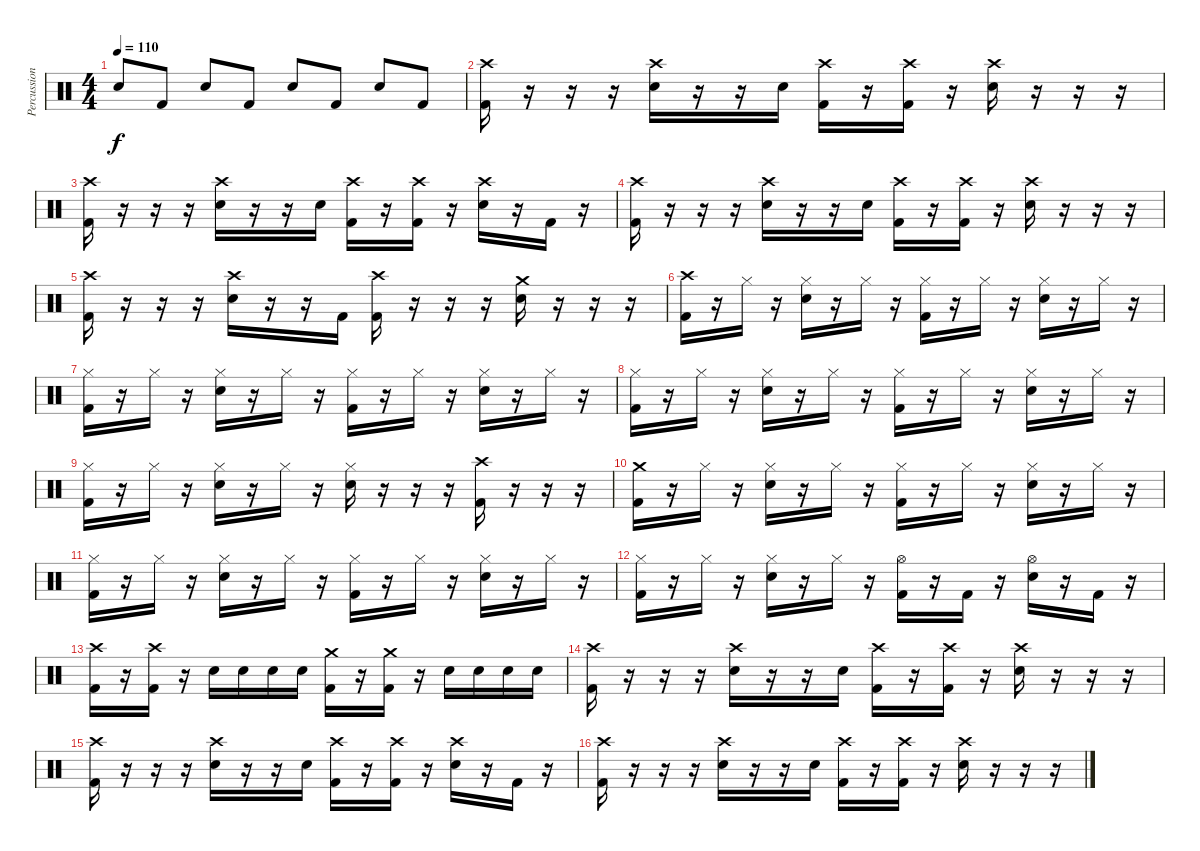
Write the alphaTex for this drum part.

\track ("Percussion" "Percussion") {instrument percussion}
\staff {score}
\articulation defaults
\ts (4 4)
\tempo 110
\clef neutral
\ks c "Snare (hit) 2".8{dy f} "Kick (hit) 2".8 "Snare (hit) 2".8 "Kick (hit) 2".8 "Snare (hit) 2".8 "Kick (hit) 2".8 "Snare (hit) 2".8 "Kick (hit) 2".8
|
("Crash high (hit)" "Kick (hit) 2").16 r.16 r.16 r.16 ("Crash high (hit)" "Snare (hit) 2").16 r.16 r.16 "Snare (hit) 2".16 ("Crash high (hit)" "Kick (hit) 2").16 r.16 ("Crash high (hit)" "Kick (hit) 2").16 r.16 ("Crash high (hit)" "Snare (hit) 2").16 r.16 r.16 r.16 |
("Crash high (hit)" "Kick (hit) 2").16 r.16 r.16 r.16 ("Crash high (hit)" "Snare (hit) 2").16 r.16 r.16 "Snare (hit) 2".16 ("Crash high (hit)" "Kick (hit) 2").16 r.16 ("Crash high (hit)" "Kick (hit) 2").16 r.16 ("Crash high (hit)" "Snare (hit) 2").16 r.16 "Kick (hit) 2".16 r.16 |
("Crash high (hit)" "Kick (hit) 2").16 r.16 r.16 r.16 ("Crash high (hit)" "Snare (hit) 2").16 r.16 r.16 "Snare (hit) 2".16 ("Crash high (hit)" "Kick (hit) 2").16 r.16 ("Crash high (hit)" "Kick (hit) 2").16 r.16 ("Crash high (hit)" "Snare (hit) 2").16 r.16 r.16 r.16 |
("Crash high (hit)" "Kick (hit) 2").16 r.16 r.16 r.16 ("Crash high (hit)" "Snare (hit) 2").16 r.16 r.16 "Kick (hit) 2".16 ("Crash high (hit)" "Kick (hit) 2").16 r.16 r.16 r.16 ("Crash medium (hit)" "Snare (hit) 2").16 r.16 r.16 r.16 |
("Crash high (hit)" "Kick (hit) 2").16 r.16 "Hi-Hat (closed)".16 r.16 ("Hi-Hat (closed)" "Snare (hit) 2").16 r.16 "Hi-Hat (closed)".16 r.16 ("Hi-Hat (closed)" "Kick (hit) 2").16 r.16 "Hi-Hat (closed)".16 r.16 ("Hi-Hat (closed)" "Snare (hit) 2").16 r.16 "Hi-Hat (closed)".16 r.16 |
("Hi-Hat (closed)" "Kick (hit) 2").16 r.16 "Hi-Hat (closed)".16 r.16 ("Hi-Hat (closed)" "Snare (hit) 2").16 r.16 "Hi-Hat (closed)".16 r.16 ("Hi-Hat (closed)" "Kick (hit) 2").16 r.16 "Hi-Hat (closed)".16 r.16 ("Hi-Hat (closed)" "Snare (hit) 2").16 r.16 "Hi-Hat (closed)".16 r.16 |
("Hi-Hat (closed)" "Kick (hit) 2").16 r.16 "Hi-Hat (closed)".16 r.16 ("Hi-Hat (closed)" "Snare (hit) 2").16 r.16 "Hi-Hat (closed)".16 r.16 ("Hi-Hat (closed)" "Kick (hit) 2").16 r.16 "Hi-Hat (closed)".16 r.16 ("Hi-Hat (closed)" "Snare (hit) 2").16 r.16 "Hi-Hat (closed)".16 r.16 |
("Hi-Hat (closed)" "Kick (hit) 2").16 r.16 "Hi-Hat (closed)".16 r.16 ("Hi-Hat (closed)" "Snare (hit) 2").16 r.16 "Hi-Hat (closed)".16 r.16 ("Hi-Hat (closed)" "Snare (hit) 2").16 r.16 r.16 r.16 ("Crash high (hit)" "Kick (hit) 2").16 r.16 r.16 r.16 |
("Crash medium (hit)" "Kick (hit) 2").16 r.16 "Hi-Hat (closed)".16 r.16 ("Hi-Hat (closed)" "Snare (hit) 2").16 r.16 "Hi-Hat (closed)".16 r.16 ("Hi-Hat (closed)" "Kick (hit) 2").16 r.16 "Hi-Hat (closed)".16 r.16 ("Hi-Hat (closed)" "Snare (hit) 2").16 r.16 "Hi-Hat (closed)".16 r.16 |
("Hi-Hat (closed)" "Kick (hit) 2").16 r.16 "Hi-Hat (closed)".16 r.16 ("Hi-Hat (closed)" "Snare (hit) 2").16 r.16 "Hi-Hat (closed)".16 r.16 ("Hi-Hat (closed)" "Kick (hit) 2").16 r.16 "Hi-Hat (closed)".16 r.16 ("Hi-Hat (closed)" "Snare (hit) 2").16 r.16 "Hi-Hat (closed)".16 r.16 |
("Hi-Hat (closed)" "Kick (hit) 2").16 r.16 "Hi-Hat (closed)".16 r.16 ("Hi-Hat (closed)" "Snare (hit) 2").16 r.16 "Hi-Hat (closed)".16 r.16 ("Hi-Hat (open)" "Kick (hit) 2").16 r.16 "Kick (hit) 2".16 r.16 ("Hi-Hat (open)" "Snare (hit) 2").16 r.16 "Kick (hit) 2".16 r.16 |
("Crash high (hit)" "Kick (hit) 2").16 r.16 ("Crash high (hit)" "Kick (hit) 2").16 r.16 "Snare (hit) 2".16 "Snare (hit) 2".16 "Snare (hit) 2".16 "Snare (hit) 2".16 ("Crash medium (hit)" "Kick (hit) 2").16 r.16 ("Crash medium (hit)" "Kick (hit) 2").16 r.16 "Snare (hit) 2".16 "Snare (hit) 2".16 "Snare (hit) 2".16 "Snare (hit) 2".16 |
("Crash high (hit)" "Kick (hit) 2").16 r.16 r.16 r.16 ("Crash high (hit)" "Snare (hit) 2").16 r.16 r.16 "Snare (hit) 2".16 ("Crash high (hit)" "Kick (hit) 2").16 r.16 ("Crash high (hit)" "Kick (hit) 2").16 r.16 ("Crash high (hit)" "Snare (hit) 2").16 r.16 r.16 r.16 |
("Crash high (hit)" "Kick (hit) 2").16 r.16 r.16 r.16 ("Crash high (hit)" "Snare (hit) 2").16 r.16 r.16 "Snare (hit) 2".16 ("Crash high (hit)" "Kick (hit) 2").16 r.16 ("Crash high (hit)" "Kick (hit) 2").16 r.16 ("Crash high (hit)" "Snare (hit) 2").16 r.16 "Kick (hit) 2".16 r.16 |
("Crash high (hit)" "Kick (hit) 2").16 r.16 r.16 r.16 ("Crash high (hit)" "Snare (hit) 2").16 r.16 r.16 "Snare (hit) 2".16 ("Crash high (hit)" "Kick (hit) 2").16 r.16 ("Crash high (hit)" "Kick (hit) 2").16 r.16 ("Crash high (hit)" "Snare (hit) 2").16 r.16 r.16 r.16
